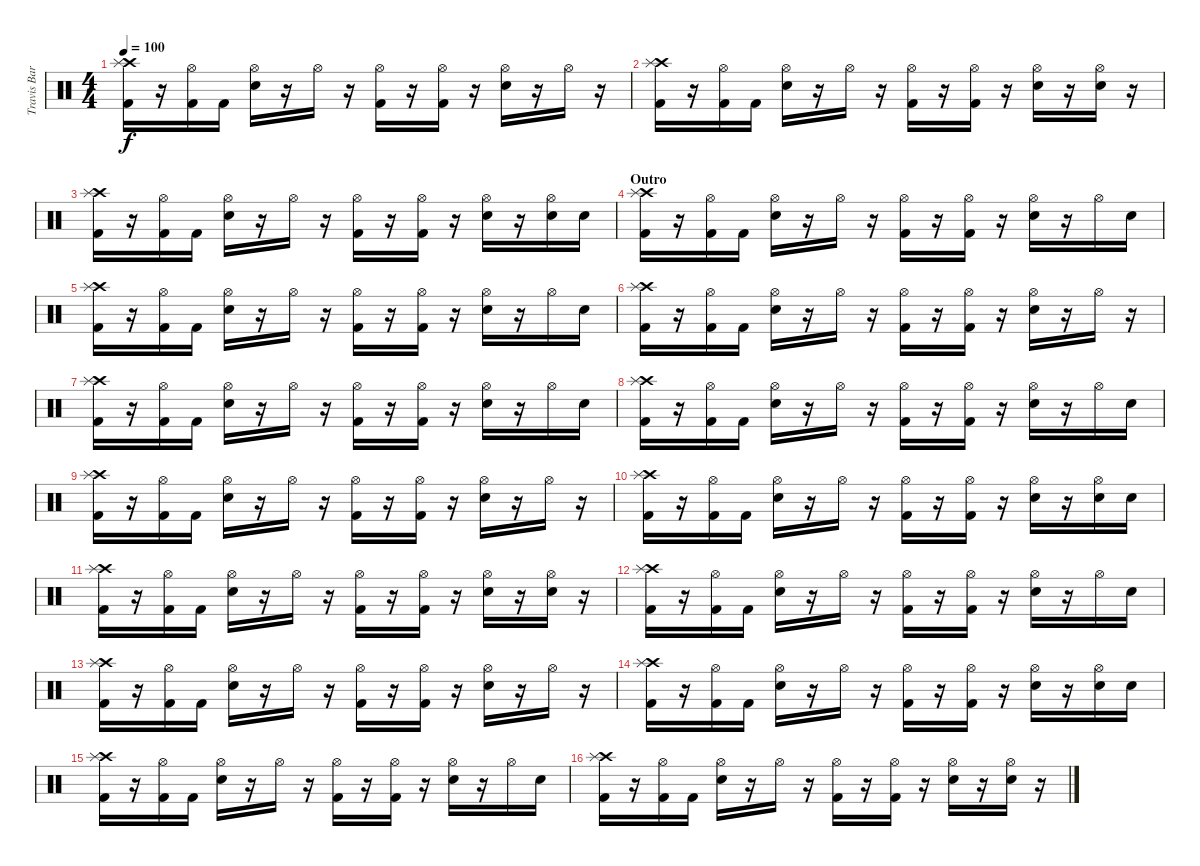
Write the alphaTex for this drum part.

\track ("Travis Barker (Schlagzeug)" "Travis Bar") {instrument percussion}
\staff {score}
\articulation defaults
\ts (4 4)
\tempo 100
\clef neutral
\ks c
("Crash high (hit)" "Splash (hit)" "Kick (hit) 2").16{dy f} r.16 ("Hi-Hat (open)" "Kick (hit) 2").16 "Kick (hit) 2".16 ("Hi-Hat (open)" "Electric Snare (hit)").16 r.16 "Hi-Hat (open)".16 r.16 ("Hi-Hat (open)" "Kick (hit) 2").16 r.16 ("Hi-Hat (open)" "Kick (hit) 2").16 r.16 ("Hi-Hat (open)" "Electric Snare (hit)").16 r.16 "Hi-Hat (open)".16 r.16 |
("Crash high (hit)" "Splash (hit)" "Kick (hit) 2").16 r.16 ("Hi-Hat (open)" "Kick (hit) 2").16 "Kick (hit) 2".16 ("Hi-Hat (open)" "Electric Snare (hit)").16 r.16 "Hi-Hat (open)".16 r.16 ("Hi-Hat (open)" "Kick (hit) 2").16 r.16 ("Hi-Hat (open)" "Kick (hit) 2").16 r.16 ("Hi-Hat (open)" "Electric Snare (hit)").16 r.16 ("Hi-Hat (open)" "Electric Snare (hit)").16 r.16 |
("Crash high (hit)" "Splash (hit)" "Kick (hit) 2").16 r.16 ("Hi-Hat (open)" "Kick (hit) 2").16 "Kick (hit) 2".16 ("Hi-Hat (open)" "Electric Snare (hit)").16 r.16 "Hi-Hat (open)".16 r.16 ("Hi-Hat (open)" "Kick (hit) 2").16 r.16 ("Hi-Hat (open)" "Kick (hit) 2").16 r.16 ("Hi-Hat (open)" "Electric Snare (hit)").16 r.16 ("Hi-Hat (open)" "Electric Snare (hit)").16 "Electric Snare (hit)".16 |
\section ("" "Outro")
("Crash high (hit)" "Splash (hit)" "Kick (hit) 2").16 r.16 ("Hi-Hat (open)" "Kick (hit) 2").16 "Kick (hit) 2".16 ("Hi-Hat (open)" "Electric Snare (hit)").16 r.16 "Hi-Hat (open)".16 r.16 ("Hi-Hat (open)" "Kick (hit) 2").16 r.16 ("Hi-Hat (open)" "Kick (hit) 2").16 r.16 ("Hi-Hat (open)" "Electric Snare (hit)").16 r.16 "Hi-Hat (open)".16 "Electric Snare (hit)".16 |
("Crash high (hit)" "Splash (hit)" "Kick (hit) 2").16 r.16 ("Hi-Hat (open)" "Kick (hit) 2").16 "Kick (hit) 2".16 ("Hi-Hat (open)" "Electric Snare (hit)").16 r.16 "Hi-Hat (open)".16 r.16 ("Hi-Hat (open)" "Kick (hit) 2").16 r.16 ("Hi-Hat (open)" "Kick (hit) 2").16 r.16 ("Hi-Hat (open)" "Electric Snare (hit)").16 r.16 "Hi-Hat (open)".16 "Electric Snare (hit)".16 |
("Crash high (hit)" "Splash (hit)" "Kick (hit) 2").16 r.16 ("Hi-Hat (open)" "Kick (hit) 2").16 "Kick (hit) 2".16 ("Hi-Hat (open)" "Electric Snare (hit)").16 r.16 "Hi-Hat (open)".16 r.16 ("Hi-Hat (open)" "Kick (hit) 2").16 r.16 ("Hi-Hat (open)" "Kick (hit) 2").16 r.16 ("Hi-Hat (open)" "Electric Snare (hit)").16 r.16 "Hi-Hat (open)".16 r.16 |
("Crash high (hit)" "Splash (hit)" "Kick (hit) 2").16 r.16 ("Hi-Hat (open)" "Kick (hit) 2").16 "Kick (hit) 2".16 ("Hi-Hat (open)" "Electric Snare (hit)").16 r.16 "Hi-Hat (open)".16 r.16 ("Hi-Hat (open)" "Kick (hit) 2").16 r.16 ("Hi-Hat (open)" "Kick (hit) 2").16 r.16 ("Hi-Hat (open)" "Electric Snare (hit)").16 r.16 "Hi-Hat (open)".16 "Electric Snare (hit)".16 |
("Crash high (hit)" "Splash (hit)" "Kick (hit) 2").16 r.16 ("Hi-Hat (open)" "Kick (hit) 2").16 "Kick (hit) 2".16 ("Hi-Hat (open)" "Electric Snare (hit)").16 r.16 "Hi-Hat (open)".16 r.16 ("Hi-Hat (open)" "Kick (hit) 2").16 r.16 ("Hi-Hat (open)" "Kick (hit) 2").16 r.16 ("Hi-Hat (open)" "Electric Snare (hit)").16 r.16 "Hi-Hat (open)".16 "Electric Snare (hit)".16 |
("Crash high (hit)" "Splash (hit)" "Kick (hit) 2").16 r.16 ("Hi-Hat (open)" "Kick (hit) 2").16 "Kick (hit) 2".16 ("Hi-Hat (open)" "Electric Snare (hit)").16 r.16 "Hi-Hat (open)".16 r.16 ("Hi-Hat (open)" "Kick (hit) 2").16 r.16 ("Hi-Hat (open)" "Kick (hit) 2").16 r.16 ("Hi-Hat (open)" "Electric Snare (hit)").16 r.16 "Hi-Hat (open)".16 r.16 |
("Crash high (hit)" "Splash (hit)" "Kick (hit) 2").16 r.16 ("Hi-Hat (open)" "Kick (hit) 2").16 "Kick (hit) 2".16 ("Hi-Hat (open)" "Electric Snare (hit)").16 r.16 "Hi-Hat (open)".16 r.16 ("Hi-Hat (open)" "Kick (hit) 2").16 r.16 ("Hi-Hat (open)" "Kick (hit) 2").16 r.16 ("Hi-Hat (open)" "Electric Snare (hit)").16 r.16 ("Hi-Hat (open)" "Electric Snare (hit)").16 "Electric Snare (hit)".16 |
("Crash high (hit)" "Splash (hit)" "Kick (hit) 2").16 r.16 ("Hi-Hat (open)" "Kick (hit) 2").16 "Kick (hit) 2".16 ("Hi-Hat (open)" "Electric Snare (hit)").16 r.16 "Hi-Hat (open)".16 r.16 ("Hi-Hat (open)" "Kick (hit) 2").16 r.16 ("Hi-Hat (open)" "Kick (hit) 2").16 r.16 ("Hi-Hat (open)" "Electric Snare (hit)").16 r.16 ("Hi-Hat (open)" "Electric Snare (hit)").16 r.16 |
("Crash high (hit)" "Splash (hit)" "Kick (hit) 2").16 r.16 ("Hi-Hat (open)" "Kick (hit) 2").16 "Kick (hit) 2".16 ("Hi-Hat (open)" "Electric Snare (hit)").16 r.16 "Hi-Hat (open)".16 r.16 ("Hi-Hat (open)" "Kick (hit) 2").16 r.16 ("Hi-Hat (open)" "Kick (hit) 2").16 r.16 ("Hi-Hat (open)" "Electric Snare (hit)").16 r.16 "Hi-Hat (open)".16 "Electric Snare (hit)".16 |
("Crash high (hit)" "Splash (hit)" "Kick (hit) 2").16 r.16 ("Hi-Hat (open)" "Kick (hit) 2").16 "Kick (hit) 2".16 ("Hi-Hat (open)" "Electric Snare (hit)").16 r.16 "Hi-Hat (open)".16 r.16 ("Hi-Hat (open)" "Kick (hit) 2").16 r.16 ("Hi-Hat (open)" "Kick (hit) 2").16 r.16 ("Hi-Hat (open)" "Electric Snare (hit)").16 r.16 "Hi-Hat (open)".16 r.16 |
("Crash high (hit)" "Splash (hit)" "Kick (hit) 2").16 r.16 ("Hi-Hat (open)" "Kick (hit) 2").16 "Kick (hit) 2".16 ("Hi-Hat (open)" "Electric Snare (hit)").16 r.16 "Hi-Hat (open)".16 r.16 ("Hi-Hat (open)" "Kick (hit) 2").16 r.16 ("Hi-Hat (open)" "Kick (hit) 2").16 r.16 ("Hi-Hat (open)" "Electric Snare (hit)").16 r.16 ("Hi-Hat (open)" "Electric Snare (hit)").16 "Electric Snare (hit)".16 |
("Crash high (hit)" "Splash (hit)" "Kick (hit) 2").16 r.16 ("Hi-Hat (open)" "Kick (hit) 2").16 "Kick (hit) 2".16 ("Hi-Hat (open)" "Electric Snare (hit)").16 r.16 "Hi-Hat (open)".16 r.16 ("Hi-Hat (open)" "Kick (hit) 2").16 r.16 ("Hi-Hat (open)" "Kick (hit) 2").16 r.16 ("Hi-Hat (open)" "Electric Snare (hit)").16 r.16 "Hi-Hat (open)".16 "Electric Snare (hit)".16 |
("Crash high (hit)" "Splash (hit)" "Kick (hit) 2").16 r.16 ("Hi-Hat (open)" "Kick (hit) 2").16 "Kick (hit) 2".16 ("Hi-Hat (open)" "Electric Snare (hit)").16 r.16 "Hi-Hat (open)".16 r.16 ("Hi-Hat (open)" "Kick (hit) 2").16 r.16 ("Hi-Hat (open)" "Kick (hit) 2").16 r.16 ("Hi-Hat (open)" "Electric Snare (hit)").16 r.16 ("Hi-Hat (open)" "Electric Snare (hit)").16 r.16
